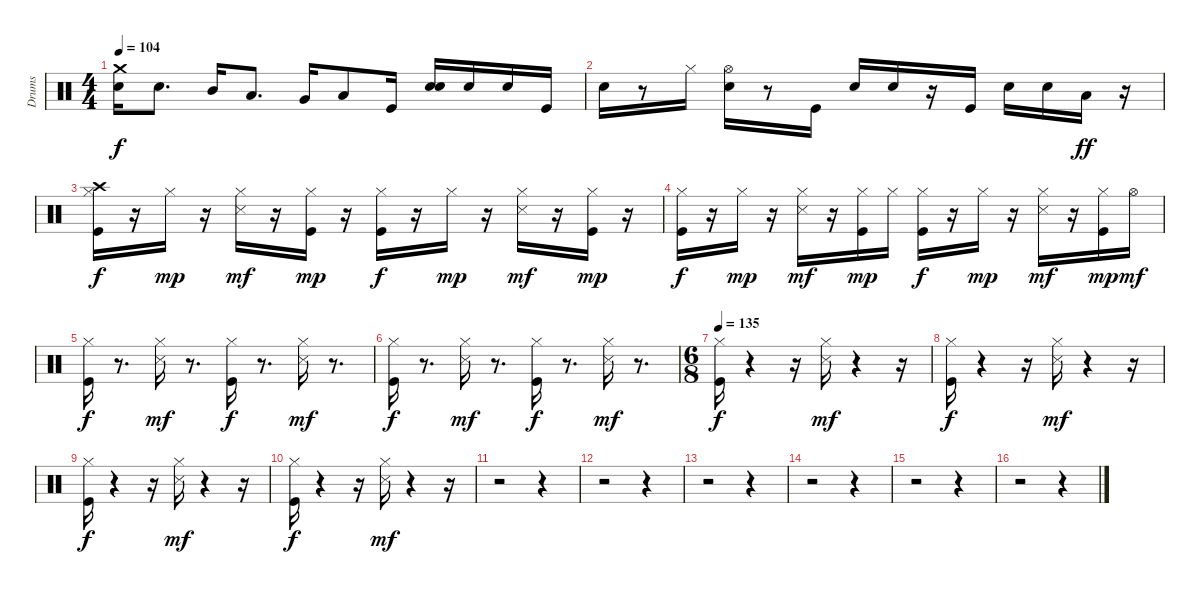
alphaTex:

\track ("Drums" "Drums") {instrument percussion}
\staff {score}
\articulation defaults
\ts (4 4)
\tempo 104
\clef neutral
\ks c
("Electric Snare (hit)" "Crash medium (hit)").16{dy f} "Electric Snare (hit)".8{d} "Mid Tom (hit)".16 "Low Tom (hit)".8{d} "Very Low Tom (hit)".16 "Low Floor Tom (hit)".8 "Kick (hit)".16 ("Snare (hit) 2" "Electric Snare (hit)").16 "Snare (hit) 2".16 "Electric Snare (hit)".16 "Kick (hit)".16 |
"Snare (hit) 2".16 r.8 "Hi-Hat (closed)".16 ("Snare (hit) 2" "Hi-Hat (open)").16 r.8 "Kick (hit)".16 "Snare (hit) 2".16 "Snare (hit) 2".16 r.16 "Kick (hit)".16 "Snare (hit) 2".16 "Snare (hit) 2".16 "Low Floor Tom (hit)".16{dy ff} r.16 |
("Kick (hit)" "Hi-Hat (closed)" "Crash high (hit)").16{dy f} r.16 "Hi-Hat (closed)".16{dy mp} r.16 ("Hi-Hat (closed)" "Snare (side stick) 3").16{dy mf} r.16 ("Kick (hit)" "Hi-Hat (closed)").16{dy mp} r.16 ("Kick (hit)" "Hi-Hat (closed)").16{dy f} r.16 "Hi-Hat (closed)".16{dy mp} r.16 ("Hi-Hat (closed)" "Snare (side stick) 3").16{dy mf} r.16 ("Kick (hit)" "Hi-Hat (closed)").16{dy mp} r.16 |
("Kick (hit)" "Hi-Hat (closed)").16{dy f} r.16 "Hi-Hat (closed)".16{dy mp} r.16 ("Hi-Hat (closed)" "Snare (side stick) 3").16{dy mf} r.16 ("Kick (hit)" "Hi-Hat (closed)").16{dy mp} "Hi-Hat (closed)".16 ("Kick (hit)" "Hi-Hat (closed)").16{dy f} r.16 "Hi-Hat (closed)".16{dy mp} r.16 ("Hi-Hat (closed)" "Snare (side stick) 3").16{dy mf} r.16 ("Kick (hit)" "Hi-Hat (closed)").16{dy mp} "Hi-Hat (open)".16{dy mf} |
("Kick (hit)" "Hi-Hat (closed)").16{dy f} r.8{d} ("Hi-Hat (closed)" "Snare (side stick) 3").16{dy mf} r.8{d} ("Kick (hit)" "Hi-Hat (closed)").16{dy f} r.8{d} ("Hi-Hat (closed)" "Snare (side stick) 3").16{dy mf} r.8{d} |
("Kick (hit)" "Hi-Hat (closed)").16{dy f} r.8{d} ("Hi-Hat (closed)" "Snare (side stick) 3").16{dy mf} r.8{d} ("Kick (hit)" "Hi-Hat (closed)").16{dy f} r.8{d} ("Hi-Hat (closed)" "Snare (side stick) 3").16{dy mf} r.8{d} |
\ts (6 8)
\tempo 135
("Kick (hit)" "Hi-Hat (closed)").16{dy f} r.4 r.16 ("Snare (side stick) 3" "Hi-Hat (closed)").16{dy mf} r.4 r.16 |
("Hi-Hat (closed)" "Kick (hit)").16{dy f} r.4 r.16 ("Snare (side stick) 3" "Hi-Hat (closed)").16{dy mf} r.4 r.16 |
("Kick (hit)" "Hi-Hat (closed)").16{dy f} r.4 r.16 ("Snare (side stick) 3" "Hi-Hat (closed)").16{dy mf} r.4 r.16 |
("Hi-Hat (closed)" "Kick (hit)").16{dy f} r.4 r.16 ("Snare (side stick) 3" "Hi-Hat (closed)").16{dy mf} r.4 r.16 |
r.2 r.4 |
r.2 r.4 |
r.2 r.4 |
r.2 r.4 |
r.2 r.4 |
r.2 r.4
